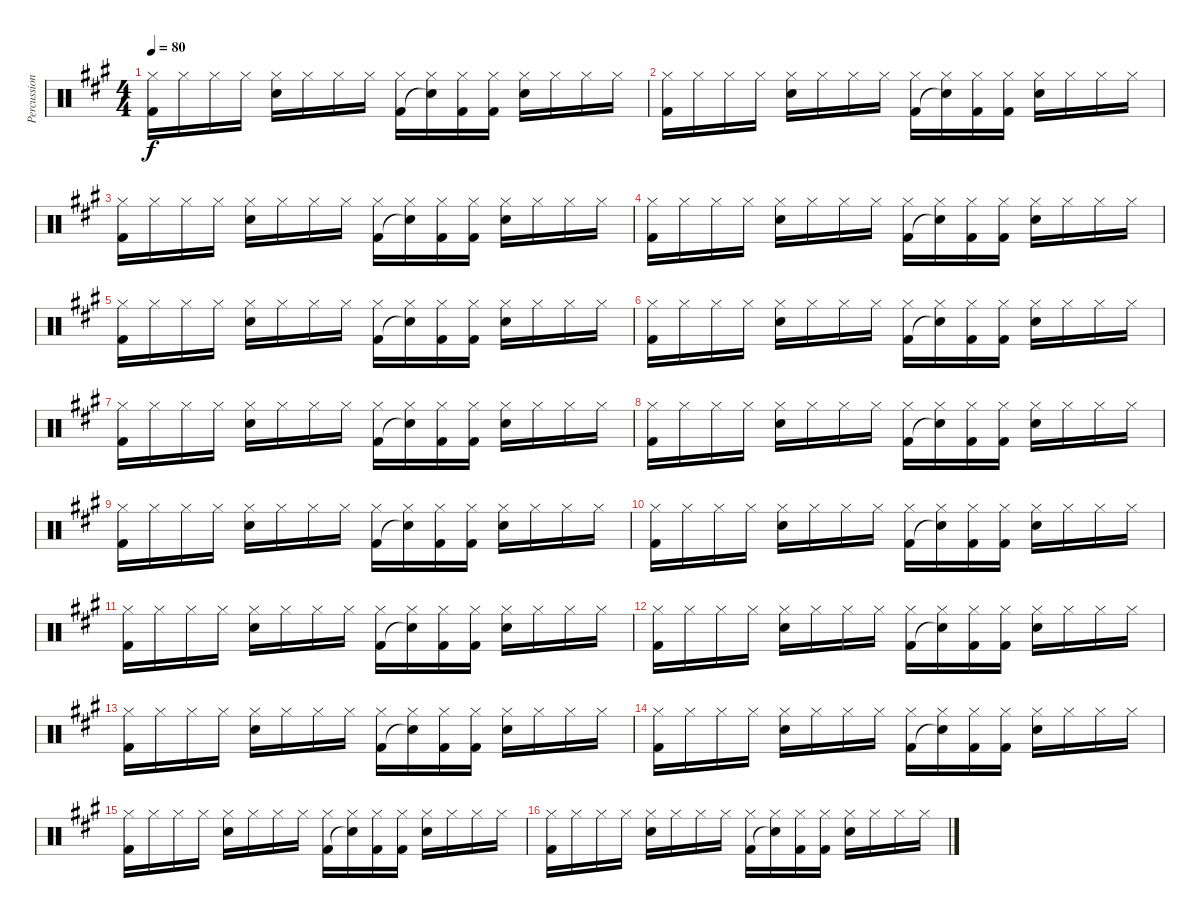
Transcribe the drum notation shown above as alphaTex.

\track ("Percussion" "Percussion") {instrument percussion}
\staff {score}
\articulation defaults
\ts (4 4)
\tempo 80
\clef neutral
\ks a
("Hi-Hat (closed)" "Kick (hit) 2").16{dy f} "Hi-Hat (closed)".16 "Hi-Hat (closed)".16 "Hi-Hat (closed)".16 ("Hi-Hat (closed)" "Snare (hit) 2").16 "Hi-Hat (closed)".16 "Hi-Hat (closed)".16 "Hi-Hat (closed)".16 ("Hi-Hat (closed)" "Kick (hit) 2").16 ("Hi-Hat (closed)" "Snare (hit)"{t}).16 ("Hi-Hat (closed)" "Kick (hit) 2").16 ("Hi-Hat (closed)" "Kick (hit) 2").16 ("Hi-Hat (closed)" "Snare (hit) 2").16 "Hi-Hat (closed)".16 "Hi-Hat (closed)".16 "Hi-Hat (closed)".16 |
("Hi-Hat (closed)" "Kick (hit) 2").16 "Hi-Hat (closed)".16 "Hi-Hat (closed)".16 "Hi-Hat (closed)".16 ("Hi-Hat (closed)" "Snare (hit) 2").16 "Hi-Hat (closed)".16 "Hi-Hat (closed)".16 "Hi-Hat (closed)".16 ("Hi-Hat (closed)" "Kick (hit) 2").16 ("Hi-Hat (closed)" "Snare (hit)"{t}).16 ("Hi-Hat (closed)" "Kick (hit) 2").16 ("Hi-Hat (closed)" "Kick (hit) 2").16 ("Hi-Hat (closed)" "Snare (hit) 2").16 "Hi-Hat (closed)".16 "Hi-Hat (closed)".16 "Hi-Hat (closed)".16 |
("Hi-Hat (closed)" "Kick (hit) 2").16 "Hi-Hat (closed)".16 "Hi-Hat (closed)".16 "Hi-Hat (closed)".16 ("Hi-Hat (closed)" "Snare (hit) 2").16 "Hi-Hat (closed)".16 "Hi-Hat (closed)".16 "Hi-Hat (closed)".16 ("Hi-Hat (closed)" "Kick (hit) 2").16 ("Hi-Hat (closed)" "Snare (hit)"{t}).16 ("Hi-Hat (closed)" "Kick (hit) 2").16 ("Hi-Hat (closed)" "Kick (hit) 2").16 ("Hi-Hat (closed)" "Snare (hit) 2").16 "Hi-Hat (closed)".16 "Hi-Hat (closed)".16 "Hi-Hat (closed)".16 |
("Hi-Hat (closed)" "Kick (hit) 2").16 "Hi-Hat (closed)".16 "Hi-Hat (closed)".16 "Hi-Hat (closed)".16 ("Hi-Hat (closed)" "Snare (hit) 2").16 "Hi-Hat (closed)".16 "Hi-Hat (closed)".16 "Hi-Hat (closed)".16 ("Hi-Hat (closed)" "Kick (hit) 2").16 ("Hi-Hat (closed)" "Snare (hit)"{t}).16 ("Hi-Hat (closed)" "Kick (hit) 2").16 ("Hi-Hat (closed)" "Kick (hit) 2").16 ("Hi-Hat (closed)" "Snare (hit) 2").16 "Hi-Hat (closed)".16 "Hi-Hat (closed)".16 "Hi-Hat (closed)".16 |
("Hi-Hat (closed)" "Kick (hit) 2").16 "Hi-Hat (closed)".16 "Hi-Hat (closed)".16 "Hi-Hat (closed)".16 ("Hi-Hat (closed)" "Snare (hit) 2").16 "Hi-Hat (closed)".16 "Hi-Hat (closed)".16 "Hi-Hat (closed)".16 ("Hi-Hat (closed)" "Kick (hit) 2").16 ("Hi-Hat (closed)" "Snare (hit)"{t}).16 ("Hi-Hat (closed)" "Kick (hit) 2").16 ("Hi-Hat (closed)" "Kick (hit) 2").16 ("Hi-Hat (closed)" "Snare (hit) 2").16 "Hi-Hat (closed)".16 "Hi-Hat (closed)".16 "Hi-Hat (closed)".16 |
("Hi-Hat (closed)" "Kick (hit) 2").16 "Hi-Hat (closed)".16 "Hi-Hat (closed)".16 "Hi-Hat (closed)".16 ("Hi-Hat (closed)" "Snare (hit) 2").16 "Hi-Hat (closed)".16 "Hi-Hat (closed)".16 "Hi-Hat (closed)".16 ("Hi-Hat (closed)" "Kick (hit) 2").16 ("Hi-Hat (closed)" "Snare (hit)"{t}).16 ("Hi-Hat (closed)" "Kick (hit) 2").16 ("Hi-Hat (closed)" "Kick (hit) 2").16 ("Hi-Hat (closed)" "Snare (hit) 2").16 "Hi-Hat (closed)".16 "Hi-Hat (closed)".16 "Hi-Hat (closed)".16 |
("Hi-Hat (closed)" "Kick (hit) 2").16 "Hi-Hat (closed)".16 "Hi-Hat (closed)".16 "Hi-Hat (closed)".16 ("Hi-Hat (closed)" "Snare (hit) 2").16 "Hi-Hat (closed)".16 "Hi-Hat (closed)".16 "Hi-Hat (closed)".16 ("Hi-Hat (closed)" "Kick (hit) 2").16 ("Hi-Hat (closed)" "Snare (hit)"{t}).16 ("Hi-Hat (closed)" "Kick (hit) 2").16 ("Hi-Hat (closed)" "Kick (hit) 2").16 ("Hi-Hat (closed)" "Snare (hit) 2").16 "Hi-Hat (closed)".16 "Hi-Hat (closed)".16 "Hi-Hat (closed)".16 |
("Hi-Hat (closed)" "Kick (hit) 2").16 "Hi-Hat (closed)".16 "Hi-Hat (closed)".16 "Hi-Hat (closed)".16 ("Hi-Hat (closed)" "Snare (hit) 2").16 "Hi-Hat (closed)".16 "Hi-Hat (closed)".16 "Hi-Hat (closed)".16 ("Hi-Hat (closed)" "Kick (hit) 2").16 ("Hi-Hat (closed)" "Snare (hit)"{t}).16 ("Hi-Hat (closed)" "Kick (hit) 2").16 ("Hi-Hat (closed)" "Kick (hit) 2").16 ("Hi-Hat (closed)" "Snare (hit) 2").16 "Hi-Hat (closed)".16 "Hi-Hat (closed)".16 "Hi-Hat (closed)".16 |
("Hi-Hat (closed)" "Kick (hit) 2").16 "Hi-Hat (closed)".16 "Hi-Hat (closed)".16 "Hi-Hat (closed)".16 ("Hi-Hat (closed)" "Snare (hit) 2").16 "Hi-Hat (closed)".16 "Hi-Hat (closed)".16 "Hi-Hat (closed)".16 ("Hi-Hat (closed)" "Kick (hit) 2").16 ("Hi-Hat (closed)" "Snare (hit)"{t}).16 ("Hi-Hat (closed)" "Kick (hit) 2").16 ("Hi-Hat (closed)" "Kick (hit) 2").16 ("Hi-Hat (closed)" "Snare (hit) 2").16 "Hi-Hat (closed)".16 "Hi-Hat (closed)".16 "Hi-Hat (closed)".16 |
("Hi-Hat (closed)" "Kick (hit) 2").16 "Hi-Hat (closed)".16 "Hi-Hat (closed)".16 "Hi-Hat (closed)".16 ("Hi-Hat (closed)" "Snare (hit) 2").16 "Hi-Hat (closed)".16 "Hi-Hat (closed)".16 "Hi-Hat (closed)".16 ("Hi-Hat (closed)" "Kick (hit) 2").16 ("Hi-Hat (closed)" "Snare (hit)"{t}).16 ("Hi-Hat (closed)" "Kick (hit) 2").16 ("Hi-Hat (closed)" "Kick (hit) 2").16 ("Hi-Hat (closed)" "Snare (hit) 2").16 "Hi-Hat (closed)".16 "Hi-Hat (closed)".16 "Hi-Hat (closed)".16 |
("Hi-Hat (closed)" "Kick (hit) 2").16 "Hi-Hat (closed)".16 "Hi-Hat (closed)".16 "Hi-Hat (closed)".16 ("Hi-Hat (closed)" "Snare (hit) 2").16 "Hi-Hat (closed)".16 "Hi-Hat (closed)".16 "Hi-Hat (closed)".16 ("Hi-Hat (closed)" "Kick (hit) 2").16 ("Hi-Hat (closed)" "Snare (hit)"{t}).16 ("Hi-Hat (closed)" "Kick (hit) 2").16 ("Hi-Hat (closed)" "Kick (hit) 2").16 ("Hi-Hat (closed)" "Snare (hit) 2").16 "Hi-Hat (closed)".16 "Hi-Hat (closed)".16 "Hi-Hat (closed)".16 |
("Hi-Hat (closed)" "Kick (hit) 2").16 "Hi-Hat (closed)".16 "Hi-Hat (closed)".16 "Hi-Hat (closed)".16 ("Hi-Hat (closed)" "Snare (hit) 2").16 "Hi-Hat (closed)".16 "Hi-Hat (closed)".16 "Hi-Hat (closed)".16 ("Hi-Hat (closed)" "Kick (hit) 2").16 ("Hi-Hat (closed)" "Snare (hit)"{t}).16 ("Hi-Hat (closed)" "Kick (hit) 2").16 ("Hi-Hat (closed)" "Kick (hit) 2").16 ("Hi-Hat (closed)" "Snare (hit) 2").16 "Hi-Hat (closed)".16 "Hi-Hat (closed)".16 "Hi-Hat (closed)".16 |
("Hi-Hat (closed)" "Kick (hit) 2").16 "Hi-Hat (closed)".16 "Hi-Hat (closed)".16 "Hi-Hat (closed)".16 ("Hi-Hat (closed)" "Snare (hit) 2").16 "Hi-Hat (closed)".16 "Hi-Hat (closed)".16 "Hi-Hat (closed)".16 ("Hi-Hat (closed)" "Kick (hit) 2").16 ("Hi-Hat (closed)" "Snare (hit)"{t}).16 ("Hi-Hat (closed)" "Kick (hit) 2").16 ("Hi-Hat (closed)" "Kick (hit) 2").16 ("Hi-Hat (closed)" "Snare (hit) 2").16 "Hi-Hat (closed)".16 "Hi-Hat (closed)".16 "Hi-Hat (closed)".16 |
("Hi-Hat (closed)" "Kick (hit) 2").16 "Hi-Hat (closed)".16 "Hi-Hat (closed)".16 "Hi-Hat (closed)".16 ("Hi-Hat (closed)" "Snare (hit) 2").16 "Hi-Hat (closed)".16 "Hi-Hat (closed)".16 "Hi-Hat (closed)".16 ("Hi-Hat (closed)" "Kick (hit) 2").16 ("Hi-Hat (closed)" "Snare (hit)"{t}).16 ("Hi-Hat (closed)" "Kick (hit) 2").16 ("Hi-Hat (closed)" "Kick (hit) 2").16 ("Hi-Hat (closed)" "Snare (hit) 2").16 "Hi-Hat (closed)".16 "Hi-Hat (closed)".16 "Hi-Hat (closed)".16 |
("Hi-Hat (closed)" "Kick (hit) 2").16 "Hi-Hat (closed)".16 "Hi-Hat (closed)".16 "Hi-Hat (closed)".16 ("Hi-Hat (closed)" "Snare (hit) 2").16 "Hi-Hat (closed)".16 "Hi-Hat (closed)".16 "Hi-Hat (closed)".16 ("Hi-Hat (closed)" "Kick (hit) 2").16 ("Hi-Hat (closed)" "Snare (hit)"{t}).16 ("Hi-Hat (closed)" "Kick (hit) 2").16 ("Hi-Hat (closed)" "Kick (hit) 2").16 ("Hi-Hat (closed)" "Snare (hit) 2").16 "Hi-Hat (closed)".16 "Hi-Hat (closed)".16 "Hi-Hat (closed)".16 |
("Hi-Hat (closed)" "Kick (hit) 2").16 "Hi-Hat (closed)".16 "Hi-Hat (closed)".16 "Hi-Hat (closed)".16 ("Hi-Hat (closed)" "Snare (hit) 2").16 "Hi-Hat (closed)".16 "Hi-Hat (closed)".16 "Hi-Hat (closed)".16 ("Hi-Hat (closed)" "Kick (hit) 2").16 ("Hi-Hat (closed)" "Snare (hit)"{t}).16 ("Hi-Hat (closed)" "Kick (hit) 2").16 ("Hi-Hat (closed)" "Kick (hit) 2").16 ("Hi-Hat (closed)" "Snare (hit) 2").16 "Hi-Hat (closed)".16 "Hi-Hat (closed)".16 "Hi-Hat (closed)".16
